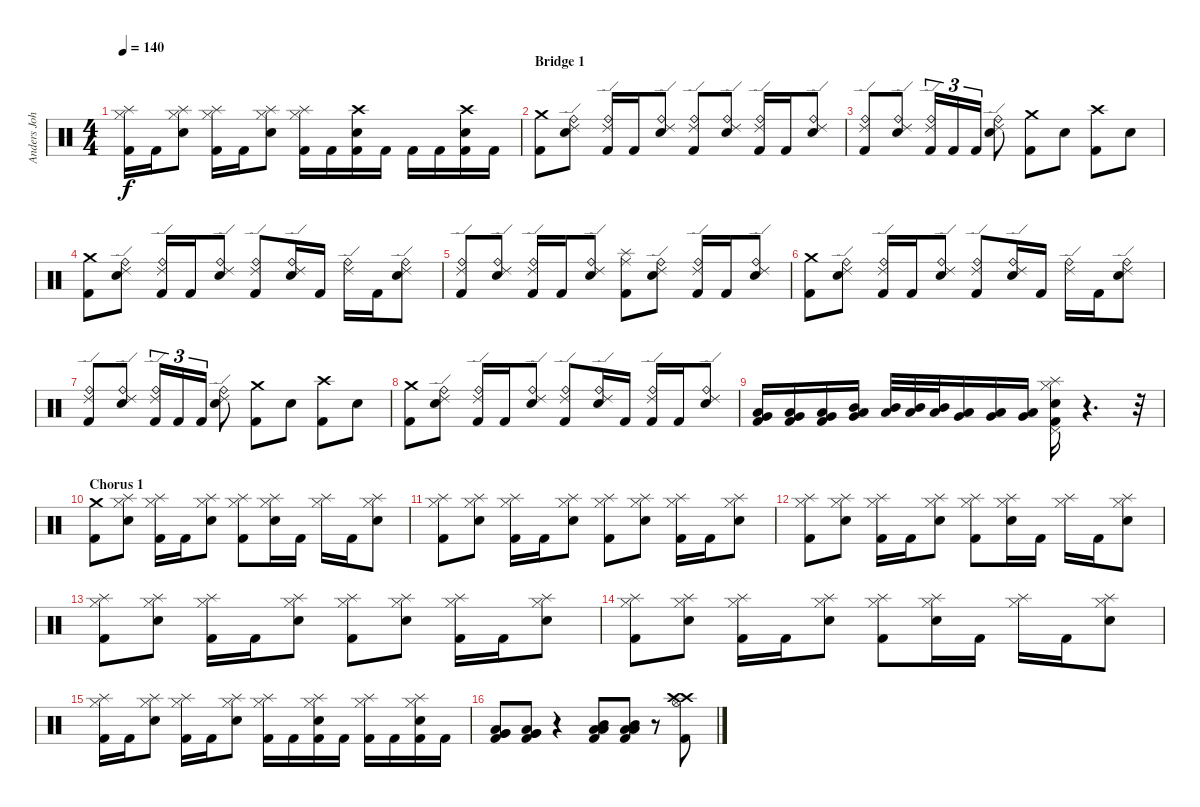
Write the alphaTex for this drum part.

\track ("Anders Johansson :: Drums" "Anders Joh") {instrument percussion}
\staff {score}
\articulation defaults
\ts (4 4)
\tempo 140
\clef neutral
\ks c
("Hi-Hat (closed)" "Splash (hit)" "Kick (hit) 2").16{dy f} "Kick (hit) 2".16 ("Hi-Hat (closed)" "Splash (hit)" "Snare (hit) 2").8 ("Hi-Hat (closed)" "Splash (hit)" "Kick (hit) 2").16 "Kick (hit) 2".16 ("Hi-Hat (closed)" "Splash (hit)" "Snare (hit) 2").8 ("Hi-Hat (closed)" "Splash (hit)" "Kick (hit) 2").16 "Kick (hit) 2".16 ("Crash high (hit)" "Snare (hit) 2" "Kick (hit) 2").16 "Kick (hit) 2".16 "Kick (hit) 2".16 "Kick (hit) 2".16 ("Crash high (hit)" "Snare (hit) 2" "Kick (hit) 2").16 "Kick (hit) 2".16 |
\section ("" "Bridge 1")
("Crash medium (hit)" "Kick (hit) 2").8 ("Ride (bell)" "Ride (edge) 2" "Snare (hit) 2").8 ("Ride (bell)" "Ride (edge) 2" "Kick (hit) 2").16 "Kick (hit) 2".16 ("Ride (bell)" "Ride (edge) 2" "Snare (hit) 2").8 ("Ride (bell)" "Ride (edge) 2" "Kick (hit) 2").8 ("Ride (bell)" "Ride (edge) 2" "Snare (hit) 2").8 ("Ride (bell)" "Ride (edge) 2" "Kick (hit) 2").16 "Kick (hit) 2".16 ("Ride (bell)" "Ride (edge) 2" "Snare (hit) 2").8 |
("Ride (bell)" "Ride (edge) 2" "Kick (hit) 2").8 ("Ride (bell)" "Ride (edge) 2" "Snare (hit) 2").8 ("Ride (bell)" "Ride (edge) 2" "Kick (hit) 2").16{tu (3 2)} "Kick (hit) 2".16{tu (3 2)} "Kick (hit) 2".16{tu (3 2)} ("Ride (bell)" "Ride (edge) 2" "Snare (hit) 2").8 ("Crash medium (hit)" "Kick (hit) 2").8 "Snare (hit) 2".8 ("Crash high (hit)" "Kick (hit) 2").8 "Snare (hit) 2".8 |
("Crash medium (hit)" "Kick (hit) 2").8 ("Ride (bell)" "Ride (edge) 2" "Snare (hit) 2").8 ("Ride (bell)" "Ride (edge) 2" "Kick (hit) 2").16 "Kick (hit) 2".16 ("Ride (bell)" "Ride (edge) 2" "Snare (hit) 2").8 ("Ride (bell)" "Ride (edge) 2" "Kick (hit) 2").8 ("Ride (bell)" "Ride (edge) 2" "Snare (hit) 2").16 "Kick (hit) 2".16 ("Ride (bell)" "Ride (edge) 2").16 "Kick (hit) 2".16 ("Ride (bell)" "Ride (edge) 2" "Snare (hit) 2").8 |
("Ride (bell)" "Ride (edge) 2" "Kick (hit) 2").8 ("Ride (bell)" "Ride (edge) 2" "Snare (hit) 2").8 ("Ride (bell)" "Ride (edge) 2" "Kick (hit) 2").16 "Kick (hit) 2".16 ("Ride (bell)" "Ride (edge) 2" "Snare (hit) 2").8 ("Ride (middle)" "Splash (hit)" "Kick (hit) 2").8 ("Ride (bell)" "Ride (edge) 2" "Snare (hit) 2").8 ("Ride (bell)" "Ride (edge) 2" "Kick (hit) 2").16 "Kick (hit) 2".16 ("Ride (bell)" "Ride (edge) 2" "Snare (hit) 2").8 |
("Crash medium (hit)" "Kick (hit) 2").8 ("Ride (bell)" "Ride (edge) 2" "Snare (hit) 2").8 ("Ride (bell)" "Ride (edge) 2" "Kick (hit) 2").16 "Kick (hit) 2".16 ("Ride (bell)" "Ride (edge) 2" "Snare (hit) 2").8 ("Ride (bell)" "Ride (edge) 2" "Kick (hit) 2").8 ("Ride (bell)" "Ride (edge) 2" "Snare (hit) 2").16 "Kick (hit) 2".16 ("Ride (bell)" "Ride (edge) 2").16 "Kick (hit) 2".16 ("Ride (bell)" "Ride (edge) 2" "Snare (hit) 2").8 |
("Ride (bell)" "Ride (edge) 2" "Kick (hit) 2").8 ("Ride (bell)" "Ride (edge) 2" "Snare (hit) 2").8 ("Ride (bell)" "Ride (edge) 2" "Kick (hit) 2").16{tu (3 2)} "Kick (hit) 2".16{tu (3 2)} "Kick (hit) 2".16{tu (3 2)} ("Ride (bell)" "Ride (edge) 2" "Snare (hit) 2").8 ("Crash medium (hit)" "Kick (hit) 2").8 "Snare (hit) 2".8 ("Crash high (hit)" "Kick (hit) 2").8 "Snare (hit) 2".8 |
("Crash medium (hit)" "Kick (hit) 2").8 ("Ride (bell)" "Ride (edge) 2" "Snare (hit) 2").8 ("Ride (bell)" "Ride (edge) 2" "Kick (hit) 2").16 "Kick (hit) 2".16 ("Ride (bell)" "Ride (edge) 2" "Snare (hit) 2").8 ("Ride (bell)" "Ride (edge) 2" "Kick (hit) 2").8 ("Ride (bell)" "Ride (edge) 2" "Snare (hit) 2").16 "Kick (hit) 2".16 ("Ride (bell)" "Ride (edge) 2" "Kick (hit) 2").16 "Kick (hit) 2".16 ("Ride (bell)" "Ride (edge) 2" "Snare (hit) 2").8 |
("Low Tom (hit)" "Very Low Tom (hit)" "Kick (hit) 2").16 ("Low Tom (hit)" "Very Low Tom (hit)" "Kick (hit) 2").16 ("Low Tom (hit)" "Very Low Tom (hit)" "Kick (hit) 2").16 ("Mid Tom (hit)" "Low Tom (hit)" "Very Low Tom (hit)").16 ("Mid Tom (hit)" "Low Tom (hit)").32 ("Mid Tom (hit)" "Low Tom (hit)").32 ("Mid Tom (hit)" "Low Tom (hit)").32 ("Low Tom (hit)" "Very Low Tom (hit)").16 ("Low Tom (hit)" "Very Low Tom (hit)").16 ("Low Tom (hit)" "Very Low Tom (hit)").16 ("Splash (hit)" "Hi-Hat (closed)" "Pedal Hi-Hat (hit)" "Snare (hit) 2" "Kick (hit) 2").16 r.4{d} r.32 |
\section ("" "Chorus 1")
("Crash medium (hit)" "Kick (hit) 2").8 ("Hi-Hat (closed)" "Splash (hit)" "Snare (hit) 2").8 ("Hi-Hat (closed)" "Splash (hit)" "Kick (hit) 2").16 "Kick (hit) 2".16 ("Hi-Hat (closed)" "Splash (hit)" "Snare (hit) 2").8 ("Hi-Hat (closed)" "Splash (hit)" "Kick (hit) 2").8 ("Hi-Hat (closed)" "Splash (hit)" "Snare (hit) 2").16 "Kick (hit) 2".16 ("Hi-Hat (closed)" "Splash (hit)").16 "Kick (hit) 2".16 ("Hi-Hat (closed)" "Splash (hit)" "Snare (hit) 2").8 |
("Hi-Hat (closed)" "Splash (hit)" "Kick (hit) 2").8 ("Hi-Hat (closed)" "Splash (hit)" "Snare (hit) 2").8 ("Hi-Hat (closed)" "Splash (hit)" "Kick (hit) 2").16 "Kick (hit) 2".16 ("Hi-Hat (closed)" "Splash (hit)" "Snare (hit) 2").8 ("Hi-Hat (closed)" "Splash (hit)" "Kick (hit) 2").8 ("Hi-Hat (closed)" "Splash (hit)" "Snare (hit) 2").8 ("Hi-Hat (closed)" "Splash (hit)" "Kick (hit) 2").16 "Kick (hit) 2".16 ("Hi-Hat (closed)" "Splash (hit)" "Snare (hit) 2").8 |
("Hi-Hat (closed)" "Splash (hit)" "Kick (hit) 2").8 ("Hi-Hat (closed)" "Splash (hit)" "Snare (hit) 2").8 ("Hi-Hat (closed)" "Splash (hit)" "Kick (hit) 2").16 "Kick (hit) 2".16 ("Hi-Hat (closed)" "Splash (hit)" "Snare (hit) 2").8 ("Hi-Hat (closed)" "Splash (hit)" "Kick (hit) 2").8 ("Hi-Hat (closed)" "Splash (hit)" "Snare (hit) 2").16 "Kick (hit) 2".16 ("Hi-Hat (closed)" "Splash (hit)").16 "Kick (hit) 2".16 ("Hi-Hat (closed)" "Splash (hit)" "Snare (hit) 2").8 |
("Hi-Hat (closed)" "Splash (hit)" "Kick (hit) 2").8 ("Hi-Hat (closed)" "Splash (hit)" "Snare (hit) 2").8 ("Hi-Hat (closed)" "Splash (hit)" "Kick (hit) 2").16 "Kick (hit) 2".16 ("Hi-Hat (closed)" "Splash (hit)" "Snare (hit) 2").8 ("Hi-Hat (closed)" "Splash (hit)" "Kick (hit) 2").8 ("Hi-Hat (closed)" "Splash (hit)" "Snare (hit) 2").8 ("Hi-Hat (closed)" "Splash (hit)" "Kick (hit) 2").16 "Kick (hit) 2".16 ("Hi-Hat (closed)" "Splash (hit)" "Snare (hit) 2").8 |
("Hi-Hat (closed)" "Splash (hit)" "Kick (hit) 2").8 ("Hi-Hat (closed)" "Splash (hit)" "Snare (hit) 2").8 ("Hi-Hat (closed)" "Splash (hit)" "Kick (hit) 2").16 "Kick (hit) 2".16 ("Hi-Hat (closed)" "Splash (hit)" "Snare (hit) 2").8 ("Hi-Hat (closed)" "Splash (hit)" "Kick (hit) 2").8 ("Hi-Hat (closed)" "Splash (hit)" "Snare (hit) 2").16 "Kick (hit) 2".16 ("Hi-Hat (closed)" "Splash (hit)").16 "Kick (hit) 2".16 ("Hi-Hat (closed)" "Splash (hit)" "Snare (hit) 2").8 |
("Hi-Hat (closed)" "Splash (hit)" "Kick (hit) 2").16 "Kick (hit) 2".16 ("Hi-Hat (closed)" "Splash (hit)" "Snare (hit) 2").8 ("Hi-Hat (closed)" "Splash (hit)" "Kick (hit) 2").16 "Kick (hit) 2".16 ("Hi-Hat (closed)" "Splash (hit)" "Snare (hit) 2").8 ("Hi-Hat (closed)" "Splash (hit)" "Kick (hit) 2").16 "Kick (hit) 2".16 ("Hi-Hat (closed)" "Splash (hit)" "Snare (hit) 2" "Kick (hit) 2").16 "Kick (hit) 2".16 ("Hi-Hat (closed)" "Splash (hit)" "Kick (hit) 2").16 "Kick (hit) 2".16 ("Hi-Hat (closed)" "Splash (hit)" "Snare (hit) 2" "Kick (hit) 2").16 "Kick (hit) 2".16 |
("Low Tom (hit)" "Very Low Tom (hit)" "Very Low Tom (hit)" "Kick (hit) 2").8 ("Low Tom (hit)" "Very Low Tom (hit)" "Very Low Tom (hit)" "Kick (hit) 2").8 r.4 ("Mid Tom (hit)" "Low Tom (hit)" "Low Tom (hit)" "Kick (hit) 2").8 ("Mid Tom (hit)" "Low Tom (hit)" "Low Tom (hit)" "Kick (hit) 2").8 r.8 ("Crash high (hit)" "Hi-Hat (open)" "Crash high (hit)" "Kick (hit) 2").8
